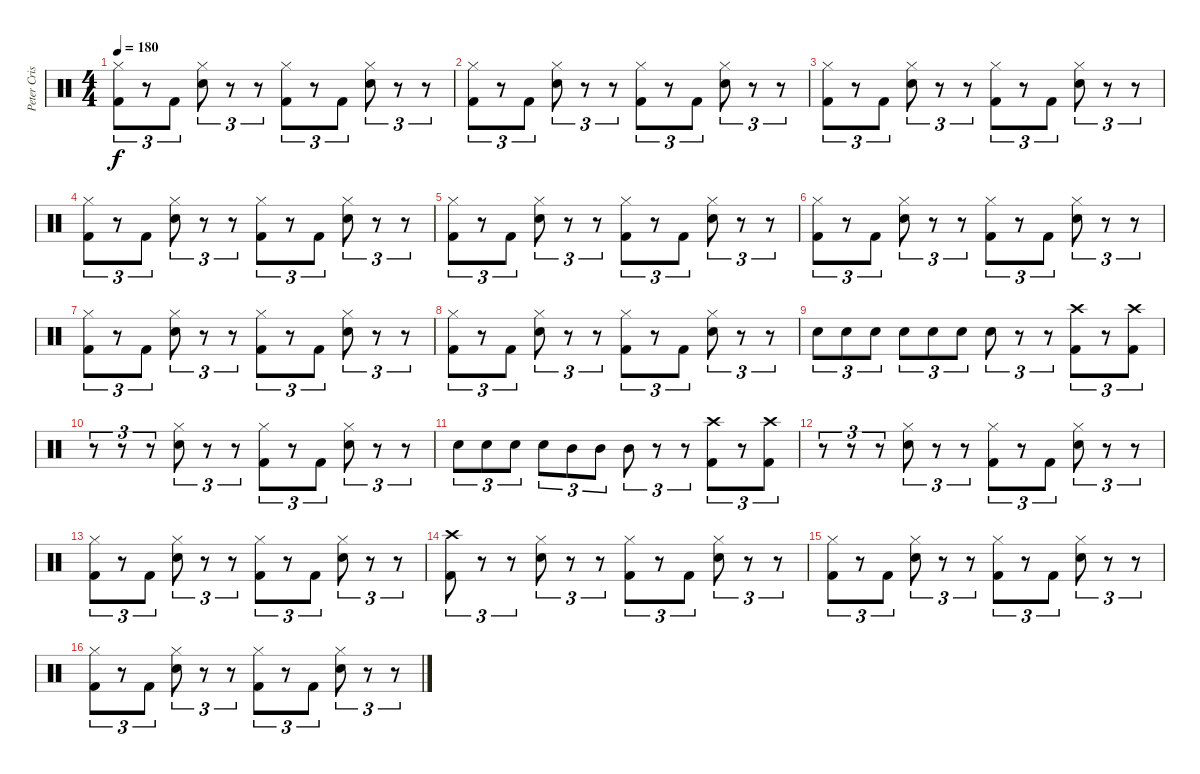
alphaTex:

\track ("Peter Criss" "Peter Cris") {instrument percussion}
\staff {score}
\articulation defaults
\ts (4 4)
\tempo 180
\clef neutral
\ks c
("Hi-Hat (closed)" "Kick (hit) 2").8{tu (3 2) dy f} r.8{tu (3 2)} "Kick (hit) 2".8{tu (3 2)} ("Hi-Hat (closed)" "Electric Snare (hit)").8{tu (3 2)} r.8{tu (3 2)} r.8{tu (3 2)} ("Hi-Hat (closed)" "Kick (hit) 2").8{tu (3 2)} r.8{tu (3 2)} "Kick (hit) 2".8{tu (3 2)} ("Hi-Hat (closed)" "Electric Snare (hit)").8{tu (3 2)} r.8{tu (3 2)} r.8{tu (3 2)} |
("Hi-Hat (closed)" "Kick (hit) 2").8{tu (3 2)} r.8{tu (3 2)} "Kick (hit) 2".8{tu (3 2)} ("Hi-Hat (closed)" "Electric Snare (hit)").8{tu (3 2)} r.8{tu (3 2)} r.8{tu (3 2)} ("Hi-Hat (closed)" "Kick (hit) 2").8{tu (3 2)} r.8{tu (3 2)} "Kick (hit) 2".8{tu (3 2)} ("Hi-Hat (closed)" "Electric Snare (hit)").8{tu (3 2)} r.8{tu (3 2)} r.8{tu (3 2)} |
("Hi-Hat (closed)" "Kick (hit) 2").8{tu (3 2)} r.8{tu (3 2)} "Kick (hit) 2".8{tu (3 2)} ("Hi-Hat (closed)" "Electric Snare (hit)").8{tu (3 2)} r.8{tu (3 2)} r.8{tu (3 2)} ("Hi-Hat (closed)" "Kick (hit) 2").8{tu (3 2)} r.8{tu (3 2)} "Kick (hit) 2".8{tu (3 2)} ("Hi-Hat (closed)" "Electric Snare (hit)").8{tu (3 2)} r.8{tu (3 2)} r.8{tu (3 2)} |
("Hi-Hat (closed)" "Kick (hit) 2").8{tu (3 2)} r.8{tu (3 2)} "Kick (hit) 2".8{tu (3 2)} ("Hi-Hat (closed)" "Electric Snare (hit)").8{tu (3 2)} r.8{tu (3 2)} r.8{tu (3 2)} ("Hi-Hat (closed)" "Kick (hit) 2").8{tu (3 2)} r.8{tu (3 2)} "Kick (hit) 2".8{tu (3 2)} ("Hi-Hat (closed)" "Electric Snare (hit)").8{tu (3 2)} r.8{tu (3 2)} r.8{tu (3 2)} |
("Hi-Hat (closed)" "Kick (hit) 2").8{tu (3 2)} r.8{tu (3 2)} "Kick (hit) 2".8{tu (3 2)} ("Hi-Hat (closed)" "Electric Snare (hit)").8{tu (3 2)} r.8{tu (3 2)} r.8{tu (3 2)} ("Hi-Hat (closed)" "Kick (hit) 2").8{tu (3 2)} r.8{tu (3 2)} "Kick (hit) 2".8{tu (3 2)} ("Hi-Hat (closed)" "Electric Snare (hit)").8{tu (3 2)} r.8{tu (3 2)} r.8{tu (3 2)} |
("Hi-Hat (closed)" "Kick (hit) 2").8{tu (3 2)} r.8{tu (3 2)} "Kick (hit) 2".8{tu (3 2)} ("Hi-Hat (closed)" "Electric Snare (hit)").8{tu (3 2)} r.8{tu (3 2)} r.8{tu (3 2)} ("Hi-Hat (closed)" "Kick (hit) 2").8{tu (3 2)} r.8{tu (3 2)} "Kick (hit) 2".8{tu (3 2)} ("Hi-Hat (closed)" "Electric Snare (hit)").8{tu (3 2)} r.8{tu (3 2)} r.8{tu (3 2)} |
("Hi-Hat (closed)" "Kick (hit) 2").8{tu (3 2)} r.8{tu (3 2)} "Kick (hit) 2".8{tu (3 2)} ("Hi-Hat (closed)" "Electric Snare (hit)").8{tu (3 2)} r.8{tu (3 2)} r.8{tu (3 2)} ("Hi-Hat (closed)" "Kick (hit) 2").8{tu (3 2)} r.8{tu (3 2)} "Kick (hit) 2".8{tu (3 2)} ("Hi-Hat (closed)" "Electric Snare (hit)").8{tu (3 2)} r.8{tu (3 2)} r.8{tu (3 2)} |
("Hi-Hat (closed)" "Kick (hit) 2").8{tu (3 2)} r.8{tu (3 2)} "Kick (hit) 2".8{tu (3 2)} ("Hi-Hat (closed)" "Electric Snare (hit)").8{tu (3 2)} r.8{tu (3 2)} r.8{tu (3 2)} ("Hi-Hat (closed)" "Kick (hit) 2").8{tu (3 2)} r.8{tu (3 2)} "Kick (hit) 2".8{tu (3 2)} ("Hi-Hat (closed)" "Electric Snare (hit)").8{tu (3 2)} r.8{tu (3 2)} r.8{tu (3 2)} |
"Electric Snare (hit)".8{tu (3 2)} "Electric Snare (hit)".8{tu (3 2)} "Electric Snare (hit)".8{tu (3 2)} "Electric Snare (hit)".8{tu (3 2)} "Electric Snare (hit)".8{tu (3 2)} "Electric Snare (hit)".8{tu (3 2)} "Electric Snare (hit)".8{tu (3 2)} r.8{tu (3 2)} r.8{tu (3 2)} ("Crash high (hit)" "Kick (hit) 2").8{tu (3 2)} r.8{tu (3 2)} ("Crash high (hit)" "Kick (hit) 2").8{tu (3 2)} |
r.8{tu (3 2)} r.8{tu (3 2)} r.8{tu (3 2)} ("Hi-Hat (closed)" "Electric Snare (hit)").8{tu (3 2)} r.8{tu (3 2)} r.8{tu (3 2)} ("Hi-Hat (closed)" "Kick (hit) 2").8{tu (3 2)} r.8{tu (3 2)} "Kick (hit) 2".8{tu (3 2)} ("Hi-Hat (closed)" "Electric Snare (hit)").8{tu (3 2)} r.8{tu (3 2)} r.8{tu (3 2)} |
"Electric Snare (hit)".8{tu (3 2)} "Electric Snare (hit)".8{tu (3 2)} "Electric Snare (hit)".8{tu (3 2)} "Electric Snare (hit)".8{tu (3 2)} "Mid Tom (hit)".8{tu (3 2)} "Mid Tom (hit)".8{tu (3 2)} "Mid Tom (hit)".8{tu (3 2)} r.8{tu (3 2)} r.8{tu (3 2)} ("Crash high (hit)" "Kick (hit) 2").8{tu (3 2)} r.8{tu (3 2)} ("Crash high (hit)" "Kick (hit) 2").8{tu (3 2)} |
r.8{tu (3 2)} r.8{tu (3 2)} r.8{tu (3 2)} ("Hi-Hat (closed)" "Electric Snare (hit)").8{tu (3 2)} r.8{tu (3 2)} r.8{tu (3 2)} ("Hi-Hat (closed)" "Kick (hit) 2").8{tu (3 2)} r.8{tu (3 2)} "Kick (hit) 2".8{tu (3 2)} ("Hi-Hat (closed)" "Electric Snare (hit)").8{tu (3 2)} r.8{tu (3 2)} r.8{tu (3 2)} |
("Hi-Hat (closed)" "Kick (hit) 2").8{tu (3 2)} r.8{tu (3 2)} "Kick (hit) 2".8{tu (3 2)} ("Hi-Hat (closed)" "Electric Snare (hit)").8{tu (3 2)} r.8{tu (3 2)} r.8{tu (3 2)} ("Hi-Hat (closed)" "Kick (hit) 2").8{tu (3 2)} r.8{tu (3 2)} "Kick (hit) 2".8{tu (3 2)} ("Hi-Hat (closed)" "Electric Snare (hit)").8{tu (3 2)} r.8{tu (3 2)} r.8{tu (3 2)} |
("Crash high (hit)" "Kick (hit) 2").8{tu (3 2)} r.8{tu (3 2)} r.8{tu (3 2)} ("Hi-Hat (closed)" "Electric Snare (hit)").8{tu (3 2)} r.8{tu (3 2)} r.8{tu (3 2)} ("Hi-Hat (closed)" "Kick (hit) 2").8{tu (3 2)} r.8{tu (3 2)} "Kick (hit) 2".8{tu (3 2)} ("Hi-Hat (closed)" "Electric Snare (hit)").8{tu (3 2)} r.8{tu (3 2)} r.8{tu (3 2)} |
("Hi-Hat (closed)" "Kick (hit) 2").8{tu (3 2)} r.8{tu (3 2)} "Kick (hit) 2".8{tu (3 2)} ("Hi-Hat (closed)" "Electric Snare (hit)").8{tu (3 2)} r.8{tu (3 2)} r.8{tu (3 2)} ("Hi-Hat (closed)" "Kick (hit) 2").8{tu (3 2)} r.8{tu (3 2)} "Kick (hit) 2".8{tu (3 2)} ("Hi-Hat (closed)" "Electric Snare (hit)").8{tu (3 2)} r.8{tu (3 2)} r.8{tu (3 2)} |
("Hi-Hat (closed)" "Kick (hit) 2").8{tu (3 2)} r.8{tu (3 2)} "Kick (hit) 2".8{tu (3 2)} ("Hi-Hat (closed)" "Electric Snare (hit)").8{tu (3 2)} r.8{tu (3 2)} r.8{tu (3 2)} ("Hi-Hat (closed)" "Kick (hit) 2").8{tu (3 2)} r.8{tu (3 2)} "Kick (hit) 2".8{tu (3 2)} ("Hi-Hat (closed)" "Electric Snare (hit)").8{tu (3 2)} r.8{tu (3 2)} r.8{tu (3 2)}
